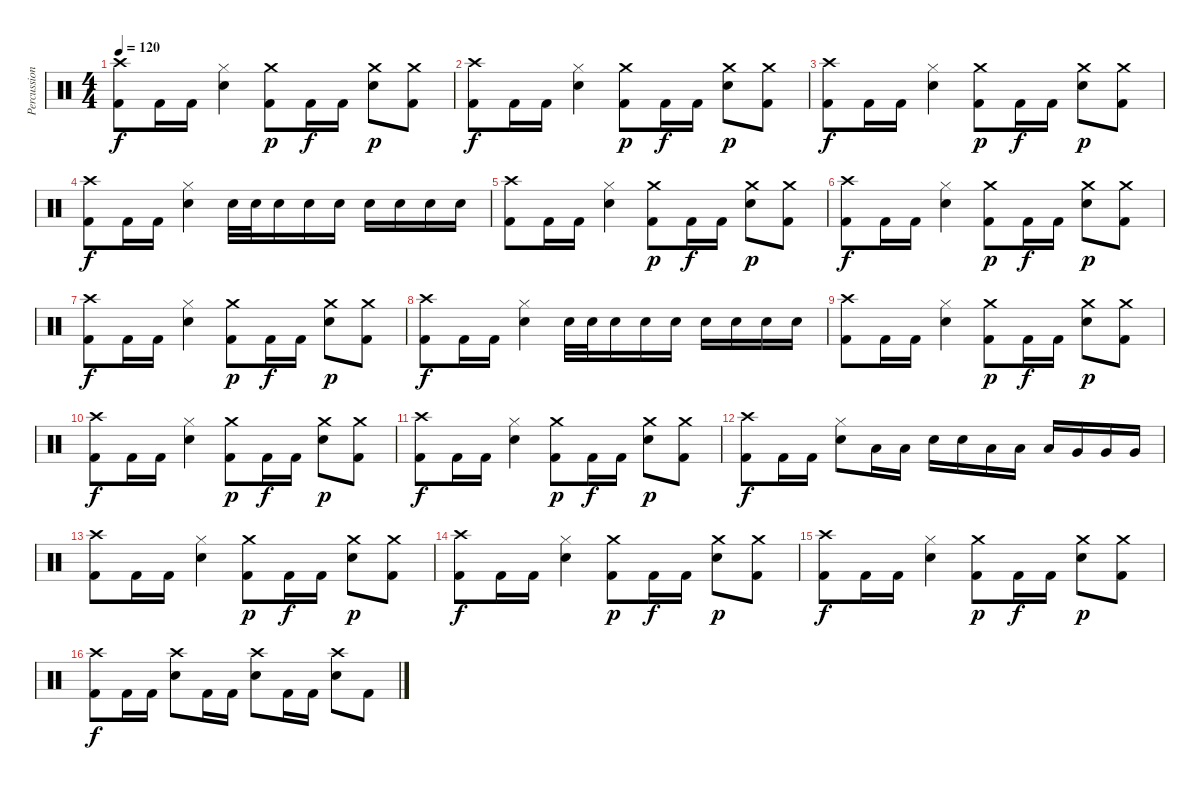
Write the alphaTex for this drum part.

\track ("Percussion" "Percussion") {instrument percussion}
\staff {score}
\articulation defaults
\ts (4 4)
\tempo 120
\clef neutral
\ks c
("Crash high (hit)" "Kick (hit) 2").8{dy f} "Kick (hit) 2".16 "Kick (hit) 2".16 ("Hi-Hat (closed)" "Electric Snare (hit)").4 ("Crash medium (hit)" "Kick (hit) 2").8{dy p} "Kick (hit) 2".16{dy f} "Kick (hit) 2".16 ("Crash medium (hit)" "Electric Snare (hit)").8{dy p} ("Crash medium (hit)" "Kick (hit) 2").8 |
("Crash high (hit)" "Kick (hit) 2").8{dy f} "Kick (hit) 2".16 "Kick (hit) 2".16 ("Hi-Hat (closed)" "Electric Snare (hit)").4 ("Crash medium (hit)" "Kick (hit) 2").8{dy p} "Kick (hit) 2".16{dy f} "Kick (hit) 2".16 ("Crash medium (hit)" "Electric Snare (hit)").8{dy p} ("Crash medium (hit)" "Kick (hit) 2").8 |
("Crash high (hit)" "Kick (hit) 2").8{dy f} "Kick (hit) 2".16 "Kick (hit) 2".16 ("Hi-Hat (closed)" "Electric Snare (hit)").4 ("Crash medium (hit)" "Kick (hit) 2").8{dy p} "Kick (hit) 2".16{dy f} "Kick (hit) 2".16 ("Crash medium (hit)" "Electric Snare (hit)").8{dy p} ("Crash medium (hit)" "Kick (hit) 2").8 |
("Crash high (hit)" "Kick (hit) 2").8{dy f} "Kick (hit) 2".16 "Kick (hit) 2".16 ("Hi-Hat (closed)" "Electric Snare (hit)").4 "Electric Snare (hit)".32 "Electric Snare (hit)".32 "Electric Snare (hit)".16 "Electric Snare (hit)".16 "Electric Snare (hit)".16 "Electric Snare (hit)".16 "Electric Snare (hit)".16 "Electric Snare (hit)".16 "Electric Snare (hit)".16 |
("Crash high (hit)" "Kick (hit) 2").8 "Kick (hit) 2".16 "Kick (hit) 2".16 ("Hi-Hat (closed)" "Electric Snare (hit)").4 ("Crash medium (hit)" "Kick (hit) 2").8{dy p} "Kick (hit) 2".16{dy f} "Kick (hit) 2".16 ("Crash medium (hit)" "Electric Snare (hit)").8{dy p} ("Crash medium (hit)" "Kick (hit) 2").8 |
("Crash high (hit)" "Kick (hit) 2").8{dy f} "Kick (hit) 2".16 "Kick (hit) 2".16 ("Hi-Hat (closed)" "Electric Snare (hit)").4 ("Crash medium (hit)" "Kick (hit) 2").8{dy p} "Kick (hit) 2".16{dy f} "Kick (hit) 2".16 ("Crash medium (hit)" "Electric Snare (hit)").8{dy p} ("Crash medium (hit)" "Kick (hit) 2").8 |
("Crash high (hit)" "Kick (hit) 2").8{dy f} "Kick (hit) 2".16 "Kick (hit) 2".16 ("Hi-Hat (closed)" "Electric Snare (hit)").4 ("Crash medium (hit)" "Kick (hit) 2").8{dy p} "Kick (hit) 2".16{dy f} "Kick (hit) 2".16 ("Crash medium (hit)" "Electric Snare (hit)").8{dy p} ("Crash medium (hit)" "Kick (hit) 2").8 |
("Crash high (hit)" "Kick (hit) 2").8{dy f} "Kick (hit) 2".16 "Kick (hit) 2".16 ("Hi-Hat (closed)" "Electric Snare (hit)").4 "Electric Snare (hit)".32 "Electric Snare (hit)".32 "Electric Snare (hit)".16 "Electric Snare (hit)".16 "Electric Snare (hit)".16 "Electric Snare (hit)".16 "Electric Snare (hit)".16 "Electric Snare (hit)".16 "Electric Snare (hit)".16 |
("Crash high (hit)" "Kick (hit) 2").8 "Kick (hit) 2".16 "Kick (hit) 2".16 ("Hi-Hat (closed)" "Electric Snare (hit)").4 ("Crash medium (hit)" "Kick (hit) 2").8{dy p} "Kick (hit) 2".16{dy f} "Kick (hit) 2".16 ("Crash medium (hit)" "Electric Snare (hit)").8{dy p} ("Crash medium (hit)" "Kick (hit) 2").8 |
("Crash high (hit)" "Kick (hit) 2").8{dy f} "Kick (hit) 2".16 "Kick (hit) 2".16 ("Hi-Hat (closed)" "Electric Snare (hit)").4 ("Crash medium (hit)" "Kick (hit) 2").8{dy p} "Kick (hit) 2".16{dy f} "Kick (hit) 2".16 ("Crash medium (hit)" "Electric Snare (hit)").8{dy p} ("Crash medium (hit)" "Kick (hit) 2").8 |
("Crash high (hit)" "Kick (hit) 2").8{dy f} "Kick (hit) 2".16 "Kick (hit) 2".16 ("Hi-Hat (closed)" "Electric Snare (hit)").4 ("Crash medium (hit)" "Kick (hit) 2").8{dy p} "Kick (hit) 2".16{dy f} "Kick (hit) 2".16 ("Crash medium (hit)" "Electric Snare (hit)").8{dy p} ("Crash medium (hit)" "Kick (hit) 2").8 |
("Crash high (hit)" "Kick (hit) 2").8{dy f} "Kick (hit) 2".16 "Kick (hit) 2".16 ("Hi-Hat (closed)" "Electric Snare (hit)").8 "Low Tom (hit)".16 "Low Tom (hit)".16 "Electric Snare (hit)".16 "Electric Snare (hit)".16 "Low Tom (hit)".16 "Low Tom (hit)".16 "Low Tom (hit)".16 "Very Low Tom (hit)".16 "Very Low Tom (hit)".16 "Very Low Tom (hit)".16 |
("Crash high (hit)" "Kick (hit) 2").8 "Kick (hit) 2".16 "Kick (hit) 2".16 ("Hi-Hat (closed)" "Electric Snare (hit)").4 ("Crash medium (hit)" "Kick (hit) 2").8{dy p} "Kick (hit) 2".16{dy f} "Kick (hit) 2".16 ("Crash medium (hit)" "Electric Snare (hit)").8{dy p} ("Crash medium (hit)" "Kick (hit) 2").8 |
("Crash high (hit)" "Kick (hit) 2").8{dy f} "Kick (hit) 2".16 "Kick (hit) 2".16 ("Hi-Hat (closed)" "Electric Snare (hit)").4 ("Crash medium (hit)" "Kick (hit) 2").8{dy p} "Kick (hit) 2".16{dy f} "Kick (hit) 2".16 ("Crash medium (hit)" "Electric Snare (hit)").8{dy p} ("Crash medium (hit)" "Kick (hit) 2").8 |
("Crash high (hit)" "Kick (hit) 2").8{dy f} "Kick (hit) 2".16 "Kick (hit) 2".16 ("Hi-Hat (closed)" "Electric Snare (hit)").4 ("Crash medium (hit)" "Kick (hit) 2").8{dy p} "Kick (hit) 2".16{dy f} "Kick (hit) 2".16 ("Crash medium (hit)" "Electric Snare (hit)").8{dy p} ("Crash medium (hit)" "Kick (hit) 2").8 |
("Crash high (hit)" "Kick (hit) 2").8{dy f} "Kick (hit) 2".16 "Kick (hit) 2".16 ("Crash high (hit)" "Electric Snare (hit)").8 "Kick (hit) 2".16 "Kick (hit) 2".16 ("Crash high (hit)" "Electric Snare (hit)").8 "Kick (hit) 2".16 "Kick (hit) 2".16 ("Crash high (hit)" "Electric Snare (hit)").8 "Kick (hit) 2".8
